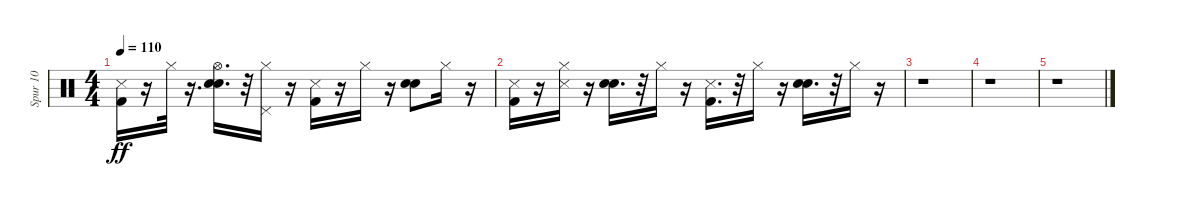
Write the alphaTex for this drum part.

\track ("Spur 10" "Spur 10") {instrument percussion}
\staff {score}
\articulation defaults
\ts (4 4)
\tempo 110
\clef neutral
\ks c
("Kick (hit) 2" "Snare (side stick) 3").16{dy ff} r.16 "Hi-Hat (closed)".32 r.16{d} ("Hand Clap (hit)" "Electric Snare (hit)" "Hi-Hat (open)").16{d} r.32 ("Hi-Hat (closed)" "Pedal Hi-Hat (hit)").16 r.16 ("Kick (hit) 2" "Snare (side stick) 3").16 r.16 "Hi-Hat (closed)".16 r.16 ("Hand Clap (hit)" "Electric Snare (hit)").8 "Hi-Hat (closed)".16 r.16 |
("Kick (hit) 2" "Snare (side stick) 3").16 r.16 ("Snare (side stick) 3" "Hi-Hat (closed)").16 r.16 ("Hand Clap (hit)" "Electric Snare (hit)").16{d} r.32 "Hi-Hat (closed)".16 r.16 ("Kick (hit) 2" "Snare (side stick) 3").16{d} r.32 "Hi-Hat (closed)".16 r.16 ("Electric Snare (hit)" "Hand Clap (hit)").16{d} r.32 "Hi-Hat (closed)".16 r.16 |
r.1 |
r.1 |
r.1
